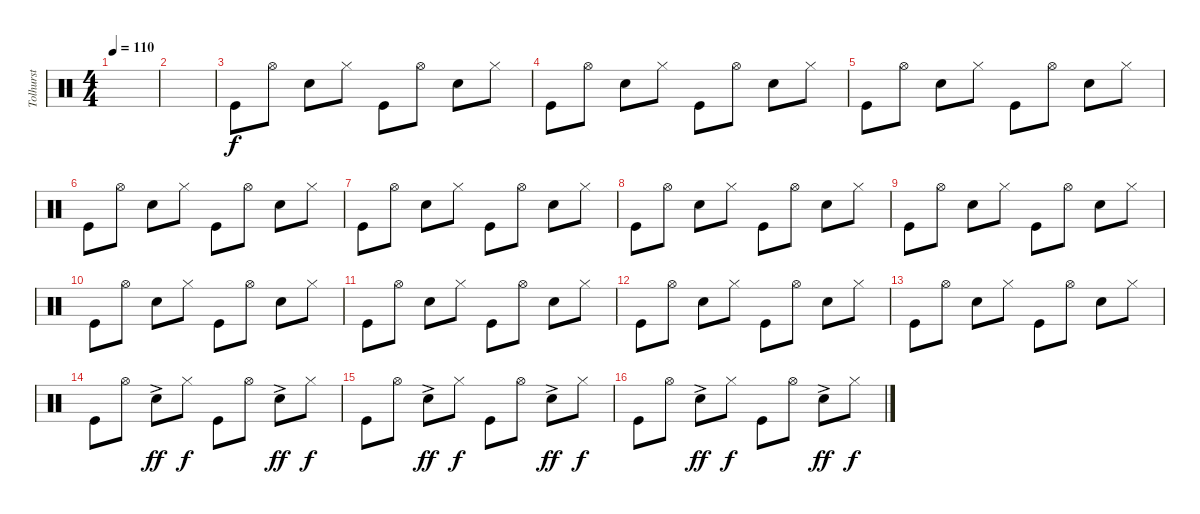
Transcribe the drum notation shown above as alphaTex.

\track ("Tolhurst" "Tolhurst") {instrument percussion}
\staff {score}
\articulation defaults
\ts (4 4)
\tempo 110
\clef neutral
\ks c
|
|
"Kick (hit)".8{dy f} "Hi-Hat (open)".8 "Electric Snare (hit)".8 "Hi-Hat (closed)".8 "Kick (hit)".8 "Hi-Hat (open)".8 "Electric Snare (hit)".8 "Hi-Hat (closed)".8 |
"Kick (hit)".8 "Hi-Hat (open)".8 "Electric Snare (hit)".8 "Hi-Hat (closed)".8 "Kick (hit)".8 "Hi-Hat (open)".8 "Electric Snare (hit)".8 "Hi-Hat (closed)".8 |
"Kick (hit)".8 "Hi-Hat (open)".8 "Electric Snare (hit)".8 "Hi-Hat (closed)".8 "Kick (hit)".8 "Hi-Hat (open)".8 "Electric Snare (hit)".8 "Hi-Hat (closed)".8 |
"Kick (hit)".8 "Hi-Hat (open)".8 "Electric Snare (hit)".8 "Hi-Hat (closed)".8 "Kick (hit)".8 "Hi-Hat (open)".8 "Electric Snare (hit)".8 "Hi-Hat (closed)".8 |
"Kick (hit)".8 "Hi-Hat (open)".8 "Electric Snare (hit)".8 "Hi-Hat (closed)".8 "Kick (hit)".8 "Hi-Hat (open)".8 "Electric Snare (hit)".8 "Hi-Hat (closed)".8 |
"Kick (hit)".8 "Hi-Hat (open)".8 "Electric Snare (hit)".8 "Hi-Hat (closed)".8 "Kick (hit)".8 "Hi-Hat (open)".8 "Electric Snare (hit)".8 "Hi-Hat (closed)".8 |
"Kick (hit)".8 "Hi-Hat (open)".8 "Electric Snare (hit)".8 "Hi-Hat (closed)".8 "Kick (hit)".8 "Hi-Hat (open)".8 "Electric Snare (hit)".8 "Hi-Hat (closed)".8 |
"Kick (hit)".8 "Hi-Hat (open)".8 "Electric Snare (hit)".8 "Hi-Hat (closed)".8 "Kick (hit)".8 "Hi-Hat (open)".8 "Electric Snare (hit)".8 "Hi-Hat (closed)".8 |
"Kick (hit)".8 "Hi-Hat (open)".8 "Electric Snare (hit)".8 "Hi-Hat (closed)".8 "Kick (hit)".8 "Hi-Hat (open)".8 "Electric Snare (hit)".8 "Hi-Hat (closed)".8 |
"Kick (hit)".8 "Hi-Hat (open)".8 "Electric Snare (hit)".8 "Hi-Hat (closed)".8 "Kick (hit)".8 "Hi-Hat (open)".8 "Electric Snare (hit)".8 "Hi-Hat (closed)".8 |
"Kick (hit)".8 "Hi-Hat (open)".8 "Electric Snare (hit)".8 "Hi-Hat (closed)".8 "Kick (hit)".8 "Hi-Hat (open)".8 "Electric Snare (hit)".8 "Hi-Hat (closed)".8 |
"Kick (hit)".8 "Hi-Hat (open)".8 "Electric Snare (hit)"{ac}.8{dy ff} "Hi-Hat (closed)".8{dy f} "Kick (hit)".8 "Hi-Hat (open)".8 "Electric Snare (hit)"{ac}.8{dy ff} "Hi-Hat (closed)".8{dy f} |
"Kick (hit)".8 "Hi-Hat (open)".8 "Electric Snare (hit)"{ac}.8{dy ff} "Hi-Hat (closed)".8{dy f} "Kick (hit)".8 "Hi-Hat (open)".8 "Electric Snare (hit)"{ac}.8{dy ff} "Hi-Hat (closed)".8{dy f} |
"Kick (hit)".8 "Hi-Hat (open)".8 "Electric Snare (hit)"{ac}.8{dy ff} "Hi-Hat (closed)".8{dy f} "Kick (hit)".8 "Hi-Hat (open)".8 "Electric Snare (hit)"{ac}.8{dy ff} "Hi-Hat (closed)".8{dy f}
